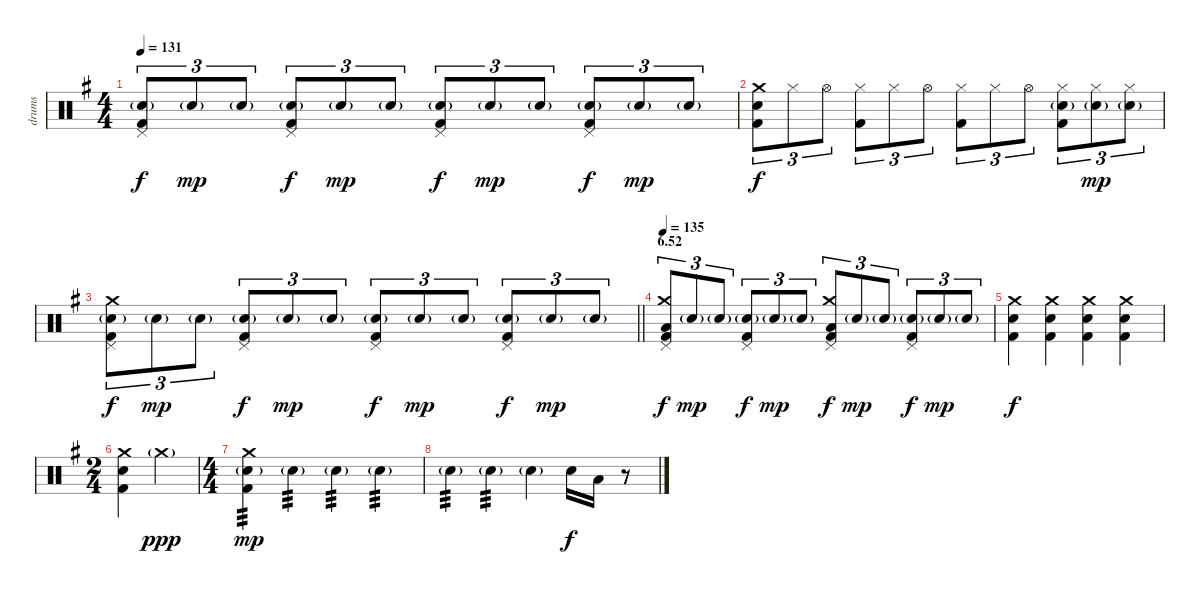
\track ("drums" "drums") {instrument percussion}
\staff {score}
\articulation defaults
\ts (4 4)
\tempo 131
\clef neutral
\ks g
("Pedal Hi-Hat (hit)" "Electric Snare (hit)"{g} "Kick (hit) 2").8{tu (3 2) dy f} "Electric Snare (hit)"{g}.8{tu (3 2) dy mp} "Electric Snare (hit)"{g}.8{tu (3 2)} ("Pedal Hi-Hat (hit)" "Electric Snare (hit)"{g} "Kick (hit) 2").8{tu (3 2) dy f} "Electric Snare (hit)"{g}.8{tu (3 2) dy mp} "Electric Snare (hit)"{g}.8{tu (3 2)} ("Pedal Hi-Hat (hit)" "Electric Snare (hit)"{g} "Kick (hit) 2").8{tu (3 2) dy f} "Electric Snare (hit)"{g}.8{tu (3 2) dy mp} "Electric Snare (hit)"{g}.8{tu (3 2)} ("Pedal Hi-Hat (hit)" "Electric Snare (hit)"{g} "Kick (hit) 2").8{tu (3 2) dy f} "Electric Snare (hit)"{g}.8{tu (3 2) dy mp} "Electric Snare (hit)"{g}.8{tu (3 2)} |
("Crash medium (hit)" "Electric Snare (hit)" "Kick (hit) 2").8{tu (3 2) dy f} "Hi-Hat (closed)".8{tu (3 2)} "Hi-Hat (open)".8{tu (3 2)} ("Hi-Hat (closed)" "Kick (hit) 2").8{tu (3 2)} "Hi-Hat (closed)".8{tu (3 2)} "Hi-Hat (open)".8{tu (3 2)} ("Hi-Hat (closed)" "Kick (hit) 2").8{tu (3 2)} "Hi-Hat (closed)".8{tu (3 2)} "Hi-Hat (open)".8{tu (3 2)} ("Hi-Hat (closed)" "Electric Snare (hit)"{g} "Kick (hit) 2").8{tu (3 2)} ("Hi-Hat (closed)" "Electric Snare (hit)"{g}).8{tu (3 2) dy mp} ("Hi-Hat (closed)" "Electric Snare (hit)"{g}).8{tu (3 2)} |
\barLineRight lightlight
("Pedal Hi-Hat (hit)" "Crash medium (hit)" "Electric Snare (hit)"{g} "Kick (hit) 2").8{tu (3 2) dy f} "Electric Snare (hit)"{g}.8{tu (3 2) dy mp} "Electric Snare (hit)"{g}.8{tu (3 2)} ("Pedal Hi-Hat (hit)" "Electric Snare (hit)"{g} "Kick (hit) 2").8{tu (3 2) dy f} "Electric Snare (hit)"{g}.8{tu (3 2) dy mp} "Electric Snare (hit)"{g}.8{tu (3 2)} ("Pedal Hi-Hat (hit)" "Electric Snare (hit)"{g} "Kick (hit) 2").8{tu (3 2) dy f} "Electric Snare (hit)"{g}.8{tu (3 2) dy mp} "Electric Snare (hit)"{g}.8{tu (3 2)} ("Pedal Hi-Hat (hit)" "Electric Snare (hit)"{g} "Kick (hit) 2").8{tu (3 2) dy f} "Electric Snare (hit)"{g}.8{tu (3 2) dy mp} "Electric Snare (hit)"{g}.8{tu (3 2)} |
\section ("" "6.52")
\tempo 135
("Pedal Hi-Hat (hit)" "Crash medium (hit)" "Low Tom (hit)" "Kick (hit) 2").8{tu (3 2) dy f} "Electric Snare (hit)"{g}.8{tu (3 2) dy mp} "Electric Snare (hit)"{g}.8{tu (3 2)} ("Pedal Hi-Hat (hit)" "Electric Snare (hit)"{g} "Kick (hit) 2").8{tu (3 2) dy f} "Electric Snare (hit)"{g}.8{tu (3 2) dy mp} "Electric Snare (hit)"{g}.8{tu (3 2)} ("Pedal Hi-Hat (hit)" "Crash medium (hit)" "Low Tom (hit)" "Kick (hit) 2").8{tu (3 2) dy f} "Electric Snare (hit)"{g}.8{tu (3 2) dy mp} "Electric Snare (hit)"{g}.8{tu (3 2)} ("Pedal Hi-Hat (hit)" "Electric Snare (hit)"{g} "Kick (hit) 2").8{tu (3 2) dy f} "Electric Snare (hit)"{g}.8{tu (3 2) dy mp} "Electric Snare (hit)"{g}.8{tu (3 2)} |
("Crash medium (hit)" "Electric Snare (hit)" "Kick (hit) 2").4{dy f} ("Crash medium (hit)" "Electric Snare (hit)" "Kick (hit) 2").4 ("Crash medium (hit)" "Electric Snare (hit)" "Kick (hit) 2").4 ("Crash medium (hit)" "Electric Snare (hit)" "Kick (hit) 2").4 |
\ts (2 4)
("Crash medium (hit)" "Electric Snare (hit)" "Kick (hit) 2").4 "Crash medium (hit)"{g}.4{dy ppp} |
\ts (4 4)
("Crash medium (hit)" "Electric Snare (hit)"{g} "Kick (hit) 2").4{tp 3 dy mp} "Electric Snare (hit)"{g}.4{tp 3} "Electric Snare (hit)"{g}.4{tp 3} "Electric Snare (hit)"{g}.4{tp 3} |
"Electric Snare (hit)"{g}.4{tp 3} "Electric Snare (hit)"{g}.4{tp 3} "Electric Snare (hit)"{g}.4 "Electric Snare (hit)".16{dy f} "Low Tom (hit)".16 r.8
